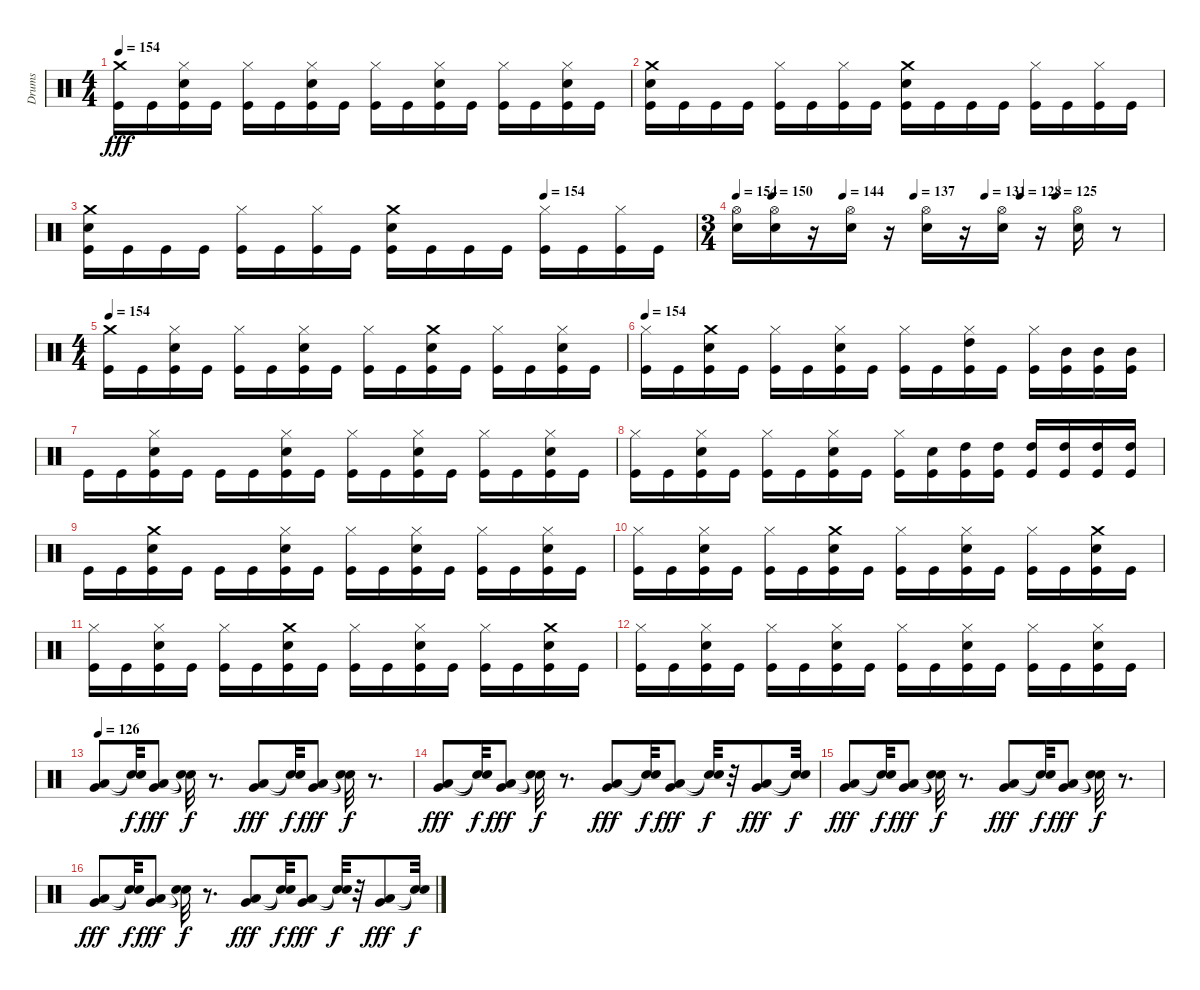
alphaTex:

\track ("Drums" "Drums") {instrument percussion}
\staff {score}
\articulation defaults
\ts (4 4)
\tempo 154
\clef neutral
\ks c
("Crash medium (hit)" "Kick (hit)").16{dy fff} "Kick (hit)".16 ("Kick (hit)" "Snare (hit) 2" "Hi-Hat (closed)").16 "Kick (hit)".16 ("Kick (hit)" "Hi-Hat (closed)").16 "Kick (hit)".16 ("Kick (hit)" "Snare (hit) 2" "Hi-Hat (closed)").16 "Kick (hit)".16 ("Kick (hit)" "Hi-Hat (closed)").16 "Kick (hit)".16 ("Kick (hit)" "Snare (hit) 2" "Hi-Hat (closed)").16 "Kick (hit)".16 ("Kick (hit)" "Hi-Hat (closed)").16 "Kick (hit)".16 ("Kick (hit)" "Snare (hit) 2" "Hi-Hat (closed)").16 "Kick (hit)".16 |
("Crash medium (hit)" "Snare (hit) 2" "Kick (hit)").16 "Kick (hit)".16 "Kick (hit)".16 "Kick (hit)".16 ("Kick (hit)" "Hi-Hat (closed)").16 "Kick (hit)".16 ("Kick (hit)" "Hi-Hat (closed)").16 "Kick (hit)".16 ("Crash medium (hit)" "Snare (hit) 2" "Kick (hit)").16 "Kick (hit)".16 "Kick (hit)".16 "Kick (hit)".16 ("Kick (hit)" "Hi-Hat (closed)").16 "Kick (hit)".16 ("Kick (hit)" "Hi-Hat (closed)").16 "Kick (hit)".16 |
\tempo (154 0.75)
("Crash medium (hit)" "Snare (hit) 2" "Kick (hit)").16 "Kick (hit)".16 "Kick (hit)".16 "Kick (hit)".16 ("Hi-Hat (closed)" "Kick (hit)").16 "Kick (hit)".16 ("Hi-Hat (closed)" "Kick (hit)").16 "Kick (hit)".16 ("Crash medium (hit)" "Snare (hit) 2" "Kick (hit)").16 "Kick (hit)".16 "Kick (hit)".16 "Kick (hit)".16 ("Hi-Hat (closed)" "Kick (hit)").16 "Kick (hit)".16 ("Hi-Hat (closed)" "Kick (hit)").16 "Kick (hit)".16 |
\ts (3 4)
\tempo 154
\tempo (150 0.08333333333333333)
\tempo (144 0.25)
\tempo (137 0.4166666666666667)
\tempo (131 0.5833333333333334)
\tempo (125 0.75)
\tempo (128 0.6666666666666666)
("Hi-Hat (open)" "Snare (hit) 2").16 ("Hi-Hat (open)" "Snare (hit) 2").16 r.16 ("Hi-Hat (open)" "Snare (hit) 2").16 r.16 ("Hi-Hat (open)" "Snare (hit) 2").16 r.16 ("Hi-Hat (open)" "Snare (hit) 2").16 r.16 ("Hi-Hat (open)" "Snare (hit) 2").16 r.8 |
\ts (4 4)
\tempo 154
("Crash medium (hit)" "Kick (hit)").16 "Kick (hit)".16 ("Kick (hit)" "Snare (hit) 2" "Hi-Hat (closed)").16 "Kick (hit)".16 ("Kick (hit)" "Hi-Hat (closed)").16 "Kick (hit)".16 ("Kick (hit)" "Snare (hit) 2" "Hi-Hat (closed)").16 "Kick (hit)".16 ("Hi-Hat (closed)" "Kick (hit)").16 "Kick (hit)".16 ("Crash medium (hit)" "Kick (hit)" "Snare (hit) 2").16 "Kick (hit)".16 ("Kick (hit)" "Hi-Hat (closed)").16 "Kick (hit)".16 ("Kick (hit)" "Snare (hit) 2" "Hi-Hat (closed)").16 "Kick (hit)".16 |
\tempo 154
("Hi-Hat (closed)" "Kick (hit)").16 "Kick (hit)".16 ("Crash medium (hit)" "Kick (hit)" "Snare (hit) 2").16 "Kick (hit)".16 ("Kick (hit)" "Hi-Hat (closed)").16 "Kick (hit)".16 ("Kick (hit)" "Snare (hit) 2" "Hi-Hat (closed)").16 "Kick (hit)".16 ("Hi-Hat (closed)" "Kick (hit)").16 "Kick (hit)".16 ("High Tom (hit)" "Kick (hit)" "Hi-Hat (closed)").16 "Kick (hit)".16 ("Hi-Hat (closed)" "Kick (hit)").16 ("Mid Tom (hit)" "Kick (hit)").16 ("Mid Tom (hit)" "Kick (hit)").16 ("Mid Tom (hit)" "Kick (hit)").16 |
"Kick (hit)".16 "Kick (hit)".16 ("Kick (hit)" "Snare (hit) 2" "Hi-Hat (closed)").16 "Kick (hit)".16 "Kick (hit)".16 "Kick (hit)".16 ("Kick (hit)" "Snare (hit) 2" "Hi-Hat (closed)").16 "Kick (hit)".16 ("Hi-Hat (closed)" "Kick (hit)").16 "Kick (hit)".16 ("Kick (hit)" "Snare (hit) 2" "Hi-Hat (closed)").16 "Kick (hit)".16 ("Kick (hit)" "Hi-Hat (closed)").16 "Kick (hit)".16 ("Kick (hit)" "Snare (hit) 2" "Hi-Hat (closed)").16 "Kick (hit)".16 |
("Hi-Hat (closed)" "Kick (hit)").16 "Kick (hit)".16 ("Kick (hit)" "Snare (hit) 2" "Hi-Hat (closed)").16 "Kick (hit)".16 ("Kick (hit)" "Hi-Hat (closed)").16 "Kick (hit)".16 ("Kick (hit)" "Snare (hit) 2" "Hi-Hat (closed)").16 "Kick (hit)".16 ("Hi-Hat (closed)" "Kick (hit)").16 ("Snare (hit) 2" "Kick (hit)").16 ("High Tom (hit)" "Kick (hit)").16 ("High Tom (hit)" "Kick (hit)").16 ("High Tom (hit)" "Kick (hit)").16 ("High Tom (hit)" "Kick (hit)").16 ("High Tom (hit)" "Kick (hit)").16 ("High Tom (hit)" "Kick (hit)").16 |
"Kick (hit)".16 "Kick (hit)".16 ("Crash medium (hit)" "Kick (hit)" "Snare (hit) 2").16 "Kick (hit)".16 "Kick (hit)".16 "Kick (hit)".16 ("Kick (hit)" "Snare (hit) 2" "Hi-Hat (closed)").16 "Kick (hit)".16 ("Hi-Hat (closed)" "Kick (hit)").16 "Kick (hit)".16 ("Kick (hit)" "Snare (hit) 2" "Hi-Hat (closed)").16 "Kick (hit)".16 ("Kick (hit)" "Hi-Hat (closed)").16 "Kick (hit)".16 ("Kick (hit)" "Snare (hit) 2" "Hi-Hat (closed)").16 "Kick (hit)".16 |
("Hi-Hat (closed)" "Kick (hit)").16 "Kick (hit)".16 ("Hi-Hat (closed)" "Kick (hit)" "Snare (hit) 2").16 "Kick (hit)".16 ("Hi-Hat (closed)" "Kick (hit)").16 "Kick (hit)".16 ("Crash medium (hit)" "Kick (hit)" "Snare (hit) 2").16 "Kick (hit)".16 ("Hi-Hat (closed)" "Kick (hit)").16 "Kick (hit)".16 ("Kick (hit)" "Snare (hit) 2" "Hi-Hat (closed)").16 "Kick (hit)".16 ("Kick (hit)" "Hi-Hat (closed)").16 "Kick (hit)".16 ("Crash medium (hit)" "Kick (hit)" "Snare (hit) 2").16 "Kick (hit)".16 |
("Hi-Hat (closed)" "Kick (hit)").16 "Kick (hit)".16 ("Hi-Hat (closed)" "Kick (hit)" "Snare (hit) 2").16 "Kick (hit)".16 ("Hi-Hat (closed)" "Kick (hit)").16 "Kick (hit)".16 ("Crash medium (hit)" "Kick (hit)" "Snare (hit) 2").16 "Kick (hit)".16 ("Hi-Hat (closed)" "Kick (hit)").16 "Kick (hit)".16 ("Kick (hit)" "Snare (hit) 2" "Hi-Hat (closed)").16 "Kick (hit)".16 ("Kick (hit)" "Hi-Hat (closed)").16 "Kick (hit)".16 ("Crash medium (hit)" "Kick (hit)" "Snare (hit) 2").16 "Kick (hit)".16 |
("Hi-Hat (closed)" "Kick (hit)").16 "Kick (hit)".16 ("Hi-Hat (closed)" "Kick (hit)" "Snare (hit) 2").16 "Kick (hit)".16 ("Hi-Hat (closed)" "Kick (hit)").16 "Kick (hit)".16 ("Kick (hit)" "Snare (hit) 2" "Hi-Hat (closed)").16 "Kick (hit)".16 ("Hi-Hat (closed)" "Kick (hit)").16 "Kick (hit)".16 ("Kick (hit)" "Snare (hit) 2" "Hi-Hat (closed)").16 "Kick (hit)".16 ("Kick (hit)" "Hi-Hat (closed)").16 "Kick (hit)".16 ("Kick (hit)" "Snare (hit) 2" "Hi-Hat (closed)").16 "Kick (hit)".16 |
\tempo 126
("Very Low Tom (hit)" "Low Tom (hit)").8 ("Snare (hit)"{t} "Snare (hit)"{t}).32{dy f} ("Very Low Tom (hit)" "Low Tom (hit)").8{dy fff} ("Snare (hit)"{t} "Snare (hit)"{t}).32{dy f} r.8{d} ("Very Low Tom (hit)" "Low Tom (hit)").8{dy fff} ("Snare (hit)"{t} "Snare (hit)"{t}).32{dy f} ("Very Low Tom (hit)" "Low Tom (hit)").8{dy fff} ("Snare (hit)"{t} "Snare (hit)"{t}).32{dy f} r.8{d} |
("Very Low Tom (hit)" "Low Tom (hit)").8{dy fff} ("Snare (hit)"{t} "Snare (hit)"{t}).32{dy f} ("Very Low Tom (hit)" "Low Tom (hit)").8{dy fff} ("Snare (hit)"{t} "Snare (hit)"{t}).32{dy f} r.8{d} ("Very Low Tom (hit)" "Low Tom (hit)").8{dy fff} ("Snare (hit)"{t} "Snare (hit)"{t}).32{dy f} ("Very Low Tom (hit)" "Low Tom (hit)").8{dy fff} ("Snare (hit)"{t} "Snare (hit)"{t}).32{dy f} r.32 ("Very Low Tom (hit)" "Low Tom (hit)").8{dy fff} ("Snare (hit)"{t} "Snare (hit)"{t}).32{dy f} |
("Very Low Tom (hit)" "Low Tom (hit)").8{dy fff} ("Snare (hit)"{t} "Snare (hit)"{t}).32{dy f} ("Very Low Tom (hit)" "Low Tom (hit)").8{dy fff} ("Snare (hit)"{t} "Snare (hit)"{t}).32{dy f} r.8{d} ("Very Low Tom (hit)" "Low Tom (hit)").8{dy fff} ("Snare (hit)"{t} "Snare (hit)"{t}).32{dy f} ("Very Low Tom (hit)" "Low Tom (hit)").8{dy fff} ("Snare (hit)"{t} "Snare (hit)"{t}).32{dy f} r.8{d} |
("Very Low Tom (hit)" "Low Tom (hit)").8{dy fff} ("Snare (hit)"{t} "Snare (hit)"{t}).32{dy f} ("Very Low Tom (hit)" "Low Tom (hit)").8{dy fff} ("Snare (hit)"{t} "Snare (hit)"{t}).32{dy f} r.8{d} ("Very Low Tom (hit)" "Low Tom (hit)").8{dy fff} ("Snare (hit)"{t} "Snare (hit)"{t}).32{dy f} ("Very Low Tom (hit)" "Low Tom (hit)").8{dy fff} ("Snare (hit)"{t} "Snare (hit)"{t}).32{dy f} r.32 ("Very Low Tom (hit)" "Low Tom (hit)").8{dy fff} ("Snare (hit)"{t} "Snare (hit)"{t}).32{dy f}
